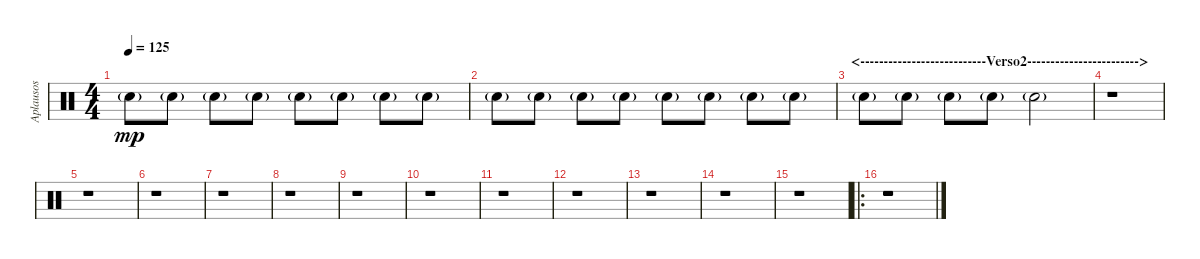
\track ("Aplausos" "Aplausos") {instrument percussion}
\staff {score}
\articulation defaults
\ts (4 4)
\tempo 125
\clef neutral
\ks c "Hand Clap (hit)"{g}.8{dy mp} "Hand Clap (hit)"{g}.8 "Hand Clap (hit)"{g}.8 "Hand Clap (hit)"{g}.8 "Hand Clap (hit)"{g}.8 "Hand Clap (hit)"{g}.8 "Hand Clap (hit)"{g}.8 "Hand Clap (hit)"{g}.8
|
"Hand Clap (hit)"{g}.8 "Hand Clap (hit)"{g}.8 "Hand Clap (hit)"{g}.8 "Hand Clap (hit)"{g}.8 "Hand Clap (hit)"{g}.8 "Hand Clap (hit)"{g}.8 "Hand Clap (hit)"{g}.8 "Hand Clap (hit)"{g}.8 |
\section ("" "<---------------------------Verso2------------------------>")
"Hand Clap (hit)"{g}.8 "Hand Clap (hit)"{g}.8 "Hand Clap (hit)"{g}.8 "Hand Clap (hit)"{g}.8 "Hand Clap (hit)"{g}.2 |
r.1 |
r.1 |
r.1 |
r.1 |
r.1 |
r.1 |
r.1 |
r.1 |
r.1 |
r.1 |
r.1 |
r.1 |
\ro
r.1
